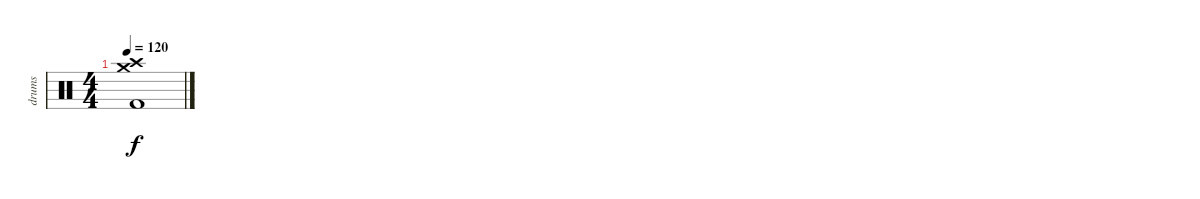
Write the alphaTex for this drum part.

\track ("drums" "drums") {instrument percussion}
\staff {score}
\articulation defaults
\ts (4 4)
\tempo 120
\clef neutral
\ks c
("Crash high (hit)" "Crash medium (hit)" "Kick (hit) 2").1{dy f}
